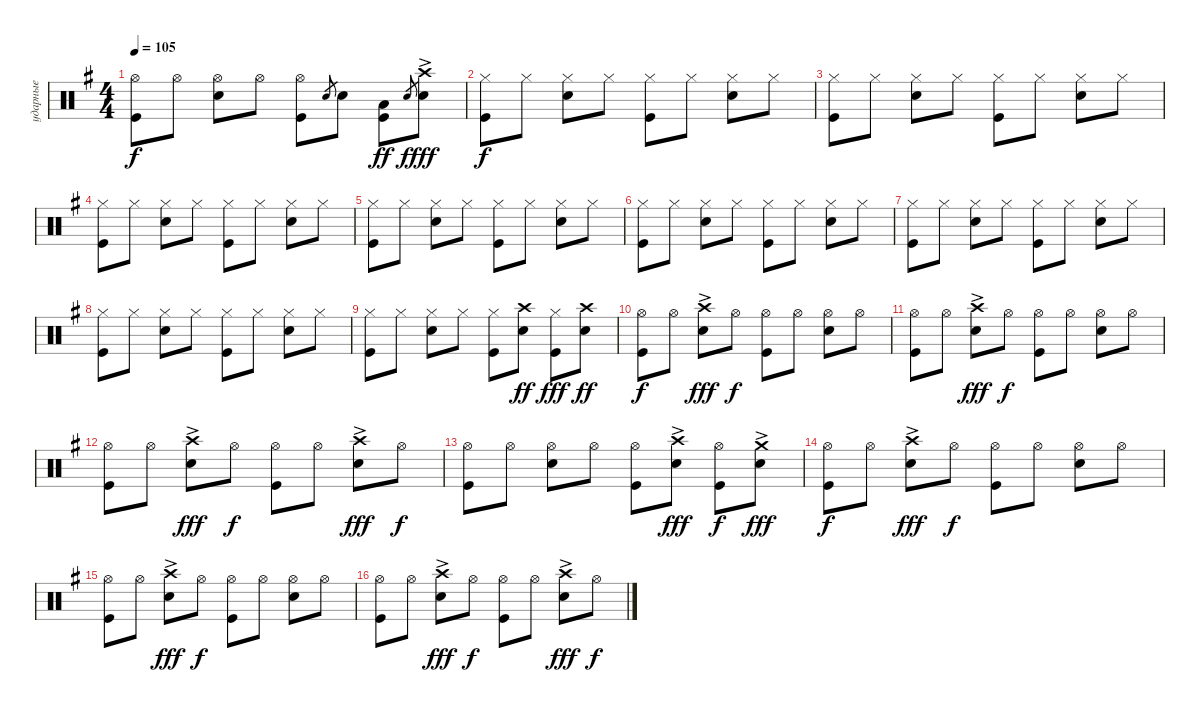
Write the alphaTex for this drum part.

\track ("ударные" "ударные") {instrument percussion}
\staff {score}
\articulation defaults
\ts (4 4)
\tempo 105
\clef neutral
\ks eminor
("Kick (hit)" "Hi-Hat (open)").8{dy f} "Hi-Hat (open)".8 ("Snare (hit) 2" "Hi-Hat (open)").8 "Hi-Hat (open)".8 ("Kick (hit)" "Hi-Hat (open)").8 "Snare (hit) 2".8{gr} "Snare (hit) 2".8 ("Kick (hit)" "Low Floor Tom (hit)").8{dy ff} "Snare (hit) 2".8{gr dy f} ("Snare (hit) 2" "Crash high (hit)"{ac}).8{dy fff} |
("Kick (hit)" "Hi-Hat (closed)").8{dy f} "Hi-Hat (closed)".8 ("Snare (hit) 2" "Hi-Hat (closed)").8 "Hi-Hat (closed)".8 ("Kick (hit)" "Hi-Hat (closed)").8 "Hi-Hat (closed)".8 ("Snare (hit) 2" "Hi-Hat (closed)").8 "Hi-Hat (closed)".8 |
("Kick (hit)" "Hi-Hat (closed)").8 "Hi-Hat (closed)".8 ("Snare (hit) 2" "Hi-Hat (closed)").8 "Hi-Hat (closed)".8 ("Kick (hit)" "Hi-Hat (closed)").8 "Hi-Hat (closed)".8 ("Snare (hit) 2" "Hi-Hat (closed)").8 "Hi-Hat (closed)".8 |
("Kick (hit)" "Hi-Hat (closed)").8 "Hi-Hat (closed)".8 ("Snare (hit) 2" "Hi-Hat (closed)").8 "Hi-Hat (closed)".8 ("Kick (hit)" "Hi-Hat (closed)").8 "Hi-Hat (closed)".8 ("Snare (hit) 2" "Hi-Hat (closed)").8 "Hi-Hat (closed)".8 |
("Kick (hit)" "Hi-Hat (closed)").8 "Hi-Hat (closed)".8 ("Snare (hit) 2" "Hi-Hat (closed)").8 "Hi-Hat (closed)".8 ("Kick (hit)" "Hi-Hat (closed)").8 "Hi-Hat (closed)".8 ("Snare (hit) 2" "Hi-Hat (closed)").8 "Hi-Hat (closed)".8 |
("Kick (hit)" "Hi-Hat (closed)").8 "Hi-Hat (closed)".8 ("Snare (hit) 2" "Hi-Hat (closed)").8 "Hi-Hat (closed)".8 ("Kick (hit)" "Hi-Hat (closed)").8 "Hi-Hat (closed)".8 ("Snare (hit) 2" "Hi-Hat (closed)").8 "Hi-Hat (closed)".8 |
("Kick (hit)" "Hi-Hat (closed)").8 "Hi-Hat (closed)".8 ("Snare (hit) 2" "Hi-Hat (closed)").8 "Hi-Hat (closed)".8 ("Kick (hit)" "Hi-Hat (closed)").8 "Hi-Hat (closed)".8 ("Snare (hit) 2" "Hi-Hat (closed)").8 "Hi-Hat (closed)".8 |
("Kick (hit)" "Hi-Hat (closed)").8 "Hi-Hat (closed)".8 ("Snare (hit) 2" "Hi-Hat (closed)").8 "Hi-Hat (closed)".8 ("Kick (hit)" "Hi-Hat (closed)").8 "Hi-Hat (closed)".8 ("Snare (hit) 2" "Hi-Hat (closed)").8 "Hi-Hat (closed)".8 |
("Hi-Hat (closed)" "Kick (hit)").8 "Hi-Hat (closed)".8 ("Snare (hit) 2" "Hi-Hat (closed)").8 "Hi-Hat (closed)".8 ("Hi-Hat (closed)" "Kick (hit)").8 ("Snare (hit) 2" "Crash high (hit)").8{dy ff} ("Hi-Hat (closed)" "Kick (hit)").8{dy fff} ("Snare (hit) 2" "Crash high (hit)").8{dy ff} |
("Kick (hit)" "Hi-Hat (open)").8{dy f} "Hi-Hat (open)".8 ("Snare (hit) 2" "Crash high (hit)"{ac}).8{dy fff} "Hi-Hat (open)".8{dy f} ("Kick (hit)" "Hi-Hat (open)").8 "Hi-Hat (open)".8 ("Snare (hit) 2" "Hi-Hat (open)").8 "Hi-Hat (open)".8 |
("Kick (hit)" "Hi-Hat (open)").8 "Hi-Hat (open)".8 ("Snare (hit) 2" "Crash high (hit)"{ac}).8{dy fff} "Hi-Hat (open)".8{dy f} ("Kick (hit)" "Hi-Hat (open)").8 "Hi-Hat (open)".8 ("Snare (hit) 2" "Hi-Hat (open)").8 "Hi-Hat (open)".8 |
("Kick (hit)" "Hi-Hat (open)").8 "Hi-Hat (open)".8 ("Snare (hit) 2" "Crash high (hit)"{ac}).8{dy fff} "Hi-Hat (open)".8{dy f} ("Kick (hit)" "Hi-Hat (open)").8 "Hi-Hat (open)".8 ("Snare (hit) 2" "Crash high (hit)"{ac}).8{dy fff} "Hi-Hat (open)".8{dy f} |
("Kick (hit)" "Hi-Hat (open)").8 "Hi-Hat (open)".8 ("Snare (hit) 2" "Hi-Hat (open)").8 "Hi-Hat (open)".8 ("Kick (hit)" "Hi-Hat (open)").8 ("Snare (hit) 2" "Crash high (hit)"{ac}).8{dy fff} ("Kick (hit)" "Hi-Hat (open)").8{dy f} ("Snare (hit) 2" "Crash medium (hit)"{ac}).8{dy fff} |
("Kick (hit)" "Hi-Hat (open)").8{dy f} "Hi-Hat (open)".8 ("Snare (hit) 2" "Crash high (hit)"{ac}).8{dy fff} "Hi-Hat (open)".8{dy f} ("Kick (hit)" "Hi-Hat (open)").8 "Hi-Hat (open)".8 ("Snare (hit) 2" "Hi-Hat (open)").8 "Hi-Hat (open)".8 |
("Kick (hit)" "Hi-Hat (open)").8 "Hi-Hat (open)".8 ("Snare (hit) 2" "Crash high (hit)"{ac}).8{dy fff} "Hi-Hat (open)".8{dy f} ("Kick (hit)" "Hi-Hat (open)").8 "Hi-Hat (open)".8 ("Snare (hit) 2" "Hi-Hat (open)").8 "Hi-Hat (open)".8 |
("Kick (hit)" "Hi-Hat (open)").8 "Hi-Hat (open)".8 ("Snare (hit) 2" "Crash high (hit)"{ac}).8{dy fff} "Hi-Hat (open)".8{dy f} ("Kick (hit)" "Hi-Hat (open)").8 "Hi-Hat (open)".8 ("Snare (hit) 2" "Crash high (hit)"{ac}).8{dy fff} "Hi-Hat (open)".8{dy f}
